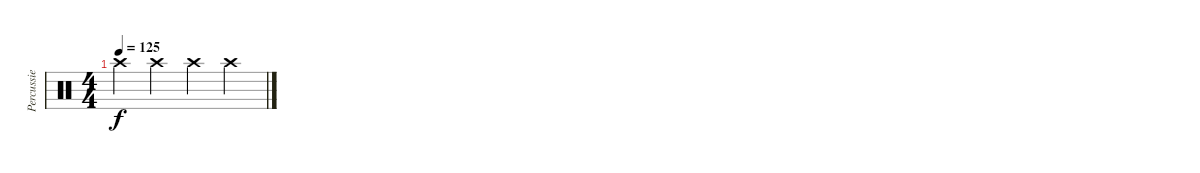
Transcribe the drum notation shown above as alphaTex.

\track ("Percussie" "Percussie") {instrument percussion}
\staff {score}
\articulation defaults
\ts (4 4)
\tempo 125
\clef neutral
\ks c "Crash high (hit)".4{dy f} "Crash high (hit)".4 "Crash high (hit)".4 "Crash high (hit)".4
